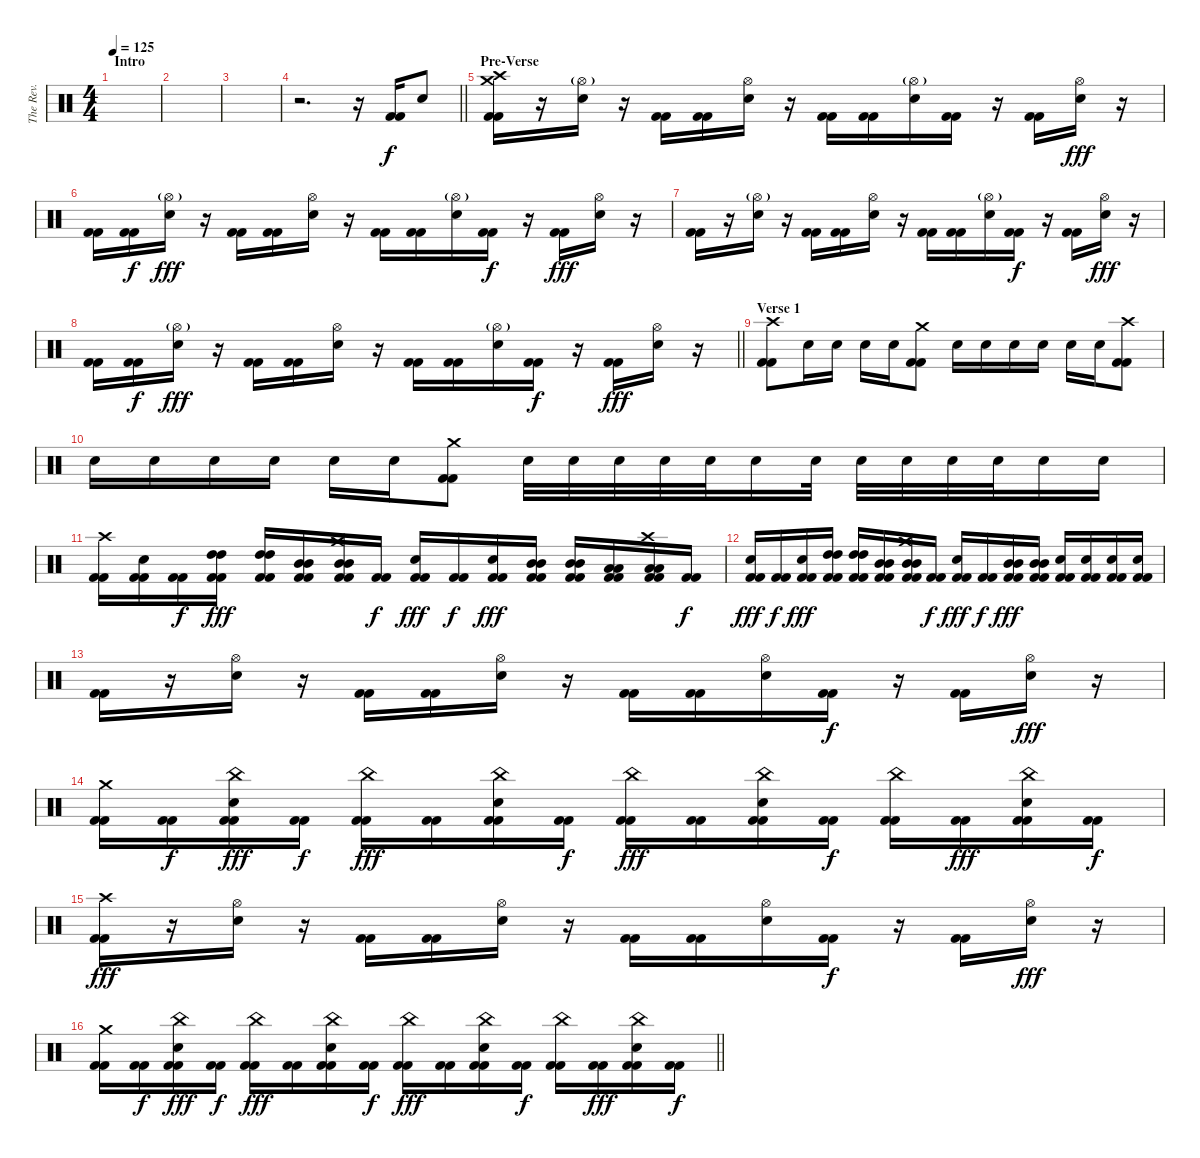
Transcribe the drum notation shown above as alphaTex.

\track ("The Rev." "The Rev.") {instrument percussion}
\staff {score}
\articulation defaults
\ts (4 4)
\section ("" "Intro")
\tempo 125
\clef neutral
\ks c
|
|
|
\barLineRight lightlight
r.2{d} r.16 ("Kick (hit) 2" "Kick (hit) 2").16 "Electric Snare (hit)".8 |
\section ("" "Pre-Verse")
("Crash medium (hit)" "Crash high (hit)" "Kick (hit) 2" "Kick (hit) 2").16 r.16 ("Hi-Hat (open)"{g} "Electric Snare (hit)").16 r.16 ("Kick (hit) 2" "Kick (hit) 2").16 ("Kick (hit) 2" "Kick (hit) 2").16 ("Hi-Hat (open)" "Electric Snare (hit)").16 r.16 ("Kick (hit) 2" "Kick (hit) 2").16 ("Kick (hit) 2" "Kick (hit) 2").16 ("Hi-Hat (open)"{g} "Electric Snare (hit)").16 ("Kick (hit) 2" "Kick (hit) 2").16{dy f} r.16 ("Kick (hit) 2" "Kick (hit) 2").16 ("Hi-Hat (open)" "Electric Snare (hit)").16{dy fff} r.16 |
("Kick (hit) 2" "Kick (hit) 2").16 ("Kick (hit) 2" "Kick (hit) 2").16{dy f} ("Hi-Hat (open)"{g} "Electric Snare (hit)").16{dy fff} r.16 ("Kick (hit) 2" "Kick (hit) 2").16 ("Kick (hit) 2" "Kick (hit) 2").16 ("Hi-Hat (open)" "Electric Snare (hit)").16 r.16 ("Kick (hit) 2" "Kick (hit) 2").16 ("Kick (hit) 2" "Kick (hit) 2").16 ("Hi-Hat (open)"{g} "Electric Snare (hit)").16 ("Kick (hit) 2" "Kick (hit) 2").16{dy f} r.16 ("Kick (hit) 2" "Kick (hit) 2").16{dy fff} ("Hi-Hat (open)" "Electric Snare (hit)").16 r.16 |
("Kick (hit) 2" "Kick (hit) 2").16 r.16 ("Hi-Hat (open)"{g} "Electric Snare (hit)").16 r.16 ("Kick (hit) 2" "Kick (hit) 2").16 ("Kick (hit) 2" "Kick (hit) 2").16 ("Hi-Hat (open)" "Electric Snare (hit)").16 r.16 ("Kick (hit) 2" "Kick (hit) 2").16 ("Kick (hit) 2" "Kick (hit) 2").16 ("Hi-Hat (open)"{g} "Electric Snare (hit)").16 ("Kick (hit) 2" "Kick (hit) 2").16{dy f} r.16 ("Kick (hit) 2" "Kick (hit) 2").16 ("Hi-Hat (open)" "Electric Snare (hit)").16{dy fff} r.16 |
\barLineRight lightlight
("Kick (hit) 2" "Kick (hit) 2").16 ("Kick (hit) 2" "Kick (hit) 2").16{dy f} ("Hi-Hat (open)"{g} "Electric Snare (hit)").16{dy fff} r.16 ("Kick (hit) 2" "Kick (hit) 2").16 ("Kick (hit) 2" "Kick (hit) 2").16 ("Hi-Hat (open)" "Electric Snare (hit)").16 r.16 ("Kick (hit) 2" "Kick (hit) 2").16 ("Kick (hit) 2" "Kick (hit) 2").16 ("Hi-Hat (open)"{g} "Electric Snare (hit)").16 ("Kick (hit) 2" "Kick (hit) 2").16{dy f} r.16 ("Kick (hit) 2" "Kick (hit) 2").16{dy fff} ("Hi-Hat (open)" "Electric Snare (hit)").16 r.16 |
\section ("" "Verse 1")
("Crash high (hit)" "Kick (hit) 2" "Kick (hit) 2").8 "Electric Snare (hit)".16 "Electric Snare (hit)".16 "Electric Snare (hit)".16 "Electric Snare (hit)".16 ("Crash medium (hit)" "Kick (hit) 2" "Kick (hit) 2").8 "Electric Snare (hit)".16 "Electric Snare (hit)".16 "Electric Snare (hit)".16 "Electric Snare (hit)".16 "Electric Snare (hit)".16 "Electric Snare (hit)".16 ("Crash high (hit)" "Kick (hit) 2" "Kick (hit) 2").8 |
"Electric Snare (hit)".16 "Electric Snare (hit)".16 "Electric Snare (hit)".16 "Electric Snare (hit)".16 "Electric Snare (hit)".16 "Electric Snare (hit)".16 ("Crash medium (hit)" "Kick (hit) 2" "Kick (hit) 2").8 "Electric Snare (hit)".32 "Electric Snare (hit)".32 "Electric Snare (hit)".32 "Electric Snare (hit)".32 "Electric Snare (hit)".32 "Electric Snare (hit)".16 "Electric Snare (hit)".32 "Electric Snare (hit)".32 "Electric Snare (hit)".32 "Electric Snare (hit)".32 "Electric Snare (hit)".32 "Electric Snare (hit)".16 "Electric Snare (hit)".16 |
("Crash high (hit)" "Kick (hit) 2" "Kick (hit) 2").16 ("Electric Snare (hit)" "Kick (hit) 2" "Kick (hit) 2").16 ("Kick (hit) 2" "Kick (hit) 2").16{dy f} ("High Tom (hit)" "High Tom (hit)" "Kick (hit) 2" "Kick (hit) 2").16{dy fff} ("High Tom (hit)" "High Tom (hit)" "Kick (hit) 2" "Kick (hit) 2").16 ("Mid Tom (hit)" "Mid Tom (hit)" "Kick (hit) 2" "Kick (hit) 2").16 ("Crash medium (hit)" "Mid Tom (hit)" "Mid Tom (hit)" "Kick (hit) 2" "Kick (hit) 2").16 ("Kick (hit) 2" "Kick (hit) 2").16{dy f} ("Electric Snare (hit)" "Kick (hit) 2" "Kick (hit) 2").16{dy fff} ("Kick (hit) 2" "Kick (hit) 2").16{dy f} ("Electric Snare (hit)" "Kick (hit) 2" "Kick (hit) 2").16{dy fff} ("Mid Tom (hit)" "Mid Tom (hit)" "Kick (hit) 2" "Kick (hit) 2").16 ("Mid Tom (hit)" "Mid Tom (hit)" "Kick (hit) 2" "Kick (hit) 2").16 ("Low Tom (hit)" "Low Tom (hit)" "Kick (hit) 2" "Kick (hit) 2").16 ("Crash high (hit)" "Low Tom (hit)" "Low Tom (hit)" "Kick (hit) 2" "Kick (hit) 2").16 ("Kick (hit) 2" "Kick (hit) 2").16{dy f} |
("Electric Snare (hit)" "Kick (hit) 2" "Kick (hit) 2").16{dy fff} ("Kick (hit) 2" "Kick (hit) 2").16{dy f} ("Electric Snare (hit)" "Kick (hit) 2" "Kick (hit) 2").16{dy fff} ("High Tom (hit)" "High Tom (hit)" "Kick (hit) 2" "Kick (hit) 2").16 ("High Tom (hit)" "High Tom (hit)" "Kick (hit) 2" "Kick (hit) 2").16 ("Mid Tom (hit)" "Mid Tom (hit)" "Kick (hit) 2" "Kick (hit) 2").16 ("Crash medium (hit)" "Mid Tom (hit)" "Mid Tom (hit)" "Kick (hit) 2" "Kick (hit) 2").16 ("Kick (hit) 2" "Kick (hit) 2").16{dy f} ("Electric Snare (hit)" "Kick (hit) 2" "Kick (hit) 2").16{dy fff} ("Kick (hit) 2" "Kick (hit) 2").16{dy f} ("Mid Tom (hit)" "Mid Tom (hit)" "Kick (hit) 2" "Kick (hit) 2").16{dy fff} ("Mid Tom (hit)" "Mid Tom (hit)" "Kick (hit) 2" "Kick (hit) 2").16 ("Electric Snare (hit)" "Kick (hit) 2" "Kick (hit) 2").16 ("Electric Snare (hit)" "Kick (hit) 2" "Kick (hit) 2").16 ("Electric Snare (hit)" "Kick (hit) 2" "Kick (hit) 2").16 ("Electric Snare (hit)" "Kick (hit) 2" "Kick (hit) 2").16 |
("Kick (hit) 2" "Kick (hit) 2").16 r.16 ("Hi-Hat (open)" "Electric Snare (hit)").16 r.16 ("Kick (hit) 2" "Kick (hit) 2").16 ("Kick (hit) 2" "Kick (hit) 2").16 ("Hi-Hat (open)" "Electric Snare (hit)").16 r.16 ("Kick (hit) 2" "Kick (hit) 2").16 ("Kick (hit) 2" "Kick (hit) 2").16 ("Hi-Hat (open)" "Electric Snare (hit)").16 ("Kick (hit) 2" "Kick (hit) 2").16{dy f} r.16 ("Kick (hit) 2" "Kick (hit) 2").16 ("Hi-Hat (open)" "Electric Snare (hit)").16{dy fff} r.16 |
("Crash medium (hit)" "Kick (hit) 2" "Kick (hit) 2").16 ("Kick (hit) 2" "Kick (hit) 2").16{dy f} ("China (hit)" "Electric Snare (hit)" "Kick (hit) 2" "Kick (hit) 2").16{dy fff} ("Kick (hit) 2" "Kick (hit) 2").16{dy f} ("China (hit)" "Kick (hit) 2" "Kick (hit) 2").16{dy fff} ("Kick (hit) 2" "Kick (hit) 2").16 ("China (hit)" "Electric Snare (hit)" "Kick (hit) 2" "Kick (hit) 2").16 ("Kick (hit) 2" "Kick (hit) 2").16{dy f} ("China (hit)" "Kick (hit) 2" "Kick (hit) 2").16{dy fff} ("Kick (hit) 2" "Kick (hit) 2").16 ("China (hit)" "Electric Snare (hit)" "Kick (hit) 2" "Kick (hit) 2").16 ("Kick (hit) 2" "Kick (hit) 2").16{dy f} ("China (hit)" "Kick (hit) 2" "Kick (hit) 2").16 ("Kick (hit) 2" "Kick (hit) 2").16{dy fff} ("China (hit)" "Electric Snare (hit)" "Kick (hit) 2" "Kick (hit) 2").16 ("Kick (hit) 2" "Kick (hit) 2").16{dy f} |
("Crash high (hit)" "Kick (hit) 2" "Kick (hit) 2").16{dy fff} r.16 ("Hi-Hat (open)" "Electric Snare (hit)").16 r.16 ("Kick (hit) 2" "Kick (hit) 2").16 ("Kick (hit) 2" "Kick (hit) 2").16 ("Hi-Hat (open)" "Electric Snare (hit)").16 r.16 ("Kick (hit) 2" "Kick (hit) 2").16 ("Kick (hit) 2" "Kick (hit) 2").16 ("Hi-Hat (open)" "Electric Snare (hit)").16 ("Kick (hit) 2" "Kick (hit) 2").16{dy f} r.16 ("Kick (hit) 2" "Kick (hit) 2").16 ("Hi-Hat (open)" "Electric Snare (hit)").16{dy fff} r.16 |
\barLineRight lightlight
("Crash medium (hit)" "Kick (hit) 2" "Kick (hit) 2").16 ("Kick (hit) 2" "Kick (hit) 2").16{dy f} ("China (hit)" "Electric Snare (hit)" "Kick (hit) 2" "Kick (hit) 2").16{dy fff} ("Kick (hit) 2" "Kick (hit) 2").16{dy f} ("China (hit)" "Kick (hit) 2" "Kick (hit) 2").16{dy fff} ("Kick (hit) 2" "Kick (hit) 2").16 ("China (hit)" "Electric Snare (hit)" "Kick (hit) 2" "Kick (hit) 2").16 ("Kick (hit) 2" "Kick (hit) 2").16{dy f} ("China (hit)" "Kick (hit) 2" "Kick (hit) 2").16{dy fff} ("Kick (hit) 2" "Kick (hit) 2").16 ("China (hit)" "Electric Snare (hit)" "Kick (hit) 2" "Kick (hit) 2").16 ("Kick (hit) 2" "Kick (hit) 2").16{dy f} ("China (hit)" "Kick (hit) 2" "Kick (hit) 2").16 ("Kick (hit) 2" "Kick (hit) 2").16{dy fff} ("China (hit)" "Electric Snare (hit)" "Kick (hit) 2" "Kick (hit) 2").16 ("Kick (hit) 2" "Kick (hit) 2").16{dy f}
